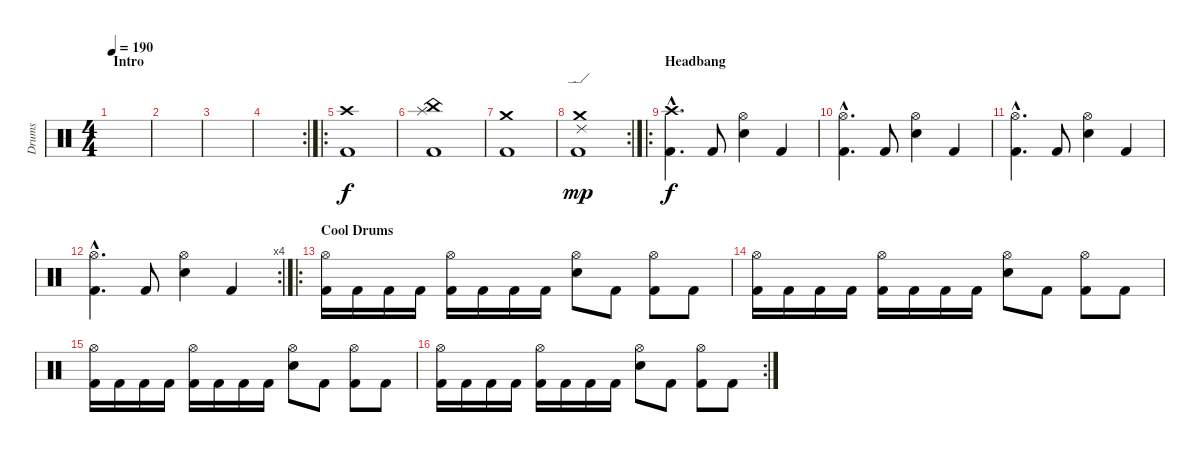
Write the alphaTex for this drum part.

\track ("Drums" "Drums") {instrument percussion}
\staff {score}
\articulation defaults
\ts (4 4)
\section ("" "Intro")
\tempo 190
\clef neutral
\ks c
|
|
|
\rc 2
|
\ro
("Crash high (hit)" "Kick (hit) 2").1 |
("China (hit)" "Splash (hit)" "Kick (hit) 2").1 |
("Crash medium (hit)" "Kick (hit) 2").1 |
\rc 2
("Ride (edge) 2" "Crash medium (hit)" "Kick (hit) 2").1{dy mp} |
\ro
\section ("" "Headbang")
("Crash high (hit)"{hac} "Kick (hit) 2"{hac}).4{d dy f} "Kick (hit) 2".8 ("Electric Snare (hit)" "Hi-Hat (open)").4 "Kick (hit) 2".4 |
("Hi-Hat (open)"{hac} "Kick (hit) 2"{hac}).4{d} "Kick (hit) 2".8 ("Electric Snare (hit)" "Hi-Hat (open)").4 "Kick (hit) 2".4 |
("Hi-Hat (open)"{hac} "Kick (hit) 2"{hac}).4{d} "Kick (hit) 2".8 ("Electric Snare (hit)" "Hi-Hat (open)").4 "Kick (hit) 2".4 |
\rc 4
("Hi-Hat (open)"{hac} "Kick (hit) 2"{hac}).4{d} "Kick (hit) 2".8 ("Electric Snare (hit)" "Hi-Hat (open)").4 "Kick (hit) 2".4 |
\ro
\section ("" "Cool Drums")
("Kick (hit) 2" "Hi-Hat (open)").16 "Kick (hit) 2".16 "Kick (hit) 2".16 "Kick (hit) 2".16 ("Kick (hit) 2" "Hi-Hat (open)").16 "Kick (hit) 2".16 "Kick (hit) 2".16 "Kick (hit) 2".16 ("Electric Snare (hit)" "Hi-Hat (open)").8 "Kick (hit) 2".8 ("Kick (hit) 2" "Hi-Hat (open)").8 "Kick (hit) 2".8 |
("Kick (hit) 2" "Hi-Hat (open)").16 "Kick (hit) 2".16 "Kick (hit) 2".16 "Kick (hit) 2".16 ("Kick (hit) 2" "Hi-Hat (open)").16 "Kick (hit) 2".16 "Kick (hit) 2".16 "Kick (hit) 2".16 ("Electric Snare (hit)" "Hi-Hat (open)").8 "Kick (hit) 2".8 ("Kick (hit) 2" "Hi-Hat (open)").8 "Kick (hit) 2".8 |
("Kick (hit) 2" "Hi-Hat (open)").16 "Kick (hit) 2".16 "Kick (hit) 2".16 "Kick (hit) 2".16 ("Kick (hit) 2" "Hi-Hat (open)").16 "Kick (hit) 2".16 "Kick (hit) 2".16 "Kick (hit) 2".16 ("Electric Snare (hit)" "Hi-Hat (open)").8 "Kick (hit) 2".8 ("Kick (hit) 2" "Hi-Hat (open)").8 "Kick (hit) 2".8 |
\rc 2
("Kick (hit) 2" "Hi-Hat (open)").16 "Kick (hit) 2".16 "Kick (hit) 2".16 "Kick (hit) 2".16 ("Kick (hit) 2" "Hi-Hat (open)").16 "Kick (hit) 2".16 "Kick (hit) 2".16 "Kick (hit) 2".16 ("Electric Snare (hit)" "Hi-Hat (open)").8 "Kick (hit) 2".8 ("Kick (hit) 2" "Hi-Hat (open)").8 "Kick (hit) 2".8
